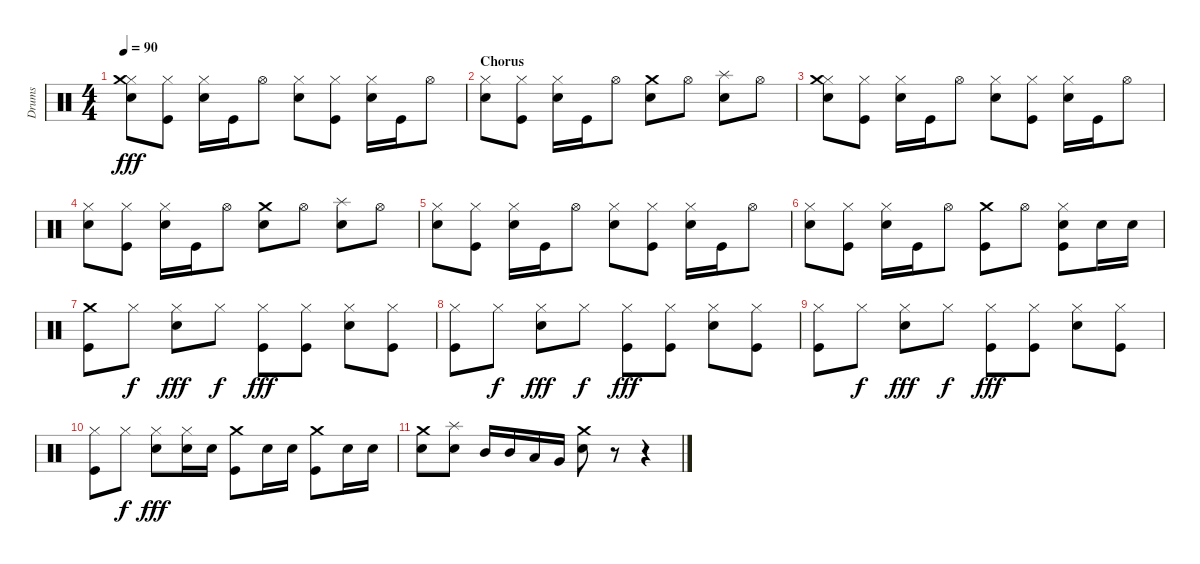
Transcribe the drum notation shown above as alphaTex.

\track ("Drums" "Drums") {instrument percussion}
\staff {score}
\articulation defaults
\ts (4 4)
\tempo 90
\clef neutral
\ks c
("Hi-Hat (closed)" "Snare (hit) 2" "Crash medium (hit)").8{dy fff} ("Hi-Hat (closed)" "Kick (hit)").8 ("Hi-Hat (closed)" "Snare (hit) 2").16 "Kick (hit)".16 "Hi-Hat (open)".8 ("Hi-Hat (closed)" "Snare (hit) 2").8 ("Hi-Hat (closed)" "Kick (hit)").8 ("Hi-Hat (closed)" "Snare (hit) 2").16 "Kick (hit)".16 "Hi-Hat (open)".8 |
\section ("" "Chorus")
("Hi-Hat (closed)" "Snare (hit) 2").8 ("Hi-Hat (closed)" "Kick (hit)").8 ("Hi-Hat (closed)" "Snare (hit) 2").16 "Kick (hit)".16 "Hi-Hat (open)".8 ("Snare (hit) 2" "Crash medium (hit)").8 "Hi-Hat (open)".8 ("Splash (hit)" "Snare (hit) 2").8 "Hi-Hat (open)".8 |
("Hi-Hat (closed)" "Crash medium (hit)" "Snare (hit) 2").8 ("Hi-Hat (closed)" "Kick (hit)").8 ("Hi-Hat (closed)" "Snare (hit) 2").16 "Kick (hit)".16 "Hi-Hat (open)".8 ("Hi-Hat (closed)" "Snare (hit) 2").8 ("Hi-Hat (closed)" "Kick (hit)").8 ("Hi-Hat (closed)" "Snare (hit) 2").16 "Kick (hit)".16 "Hi-Hat (open)".8 |
("Hi-Hat (closed)" "Snare (hit) 2").8 ("Hi-Hat (closed)" "Kick (hit)").8 ("Hi-Hat (closed)" "Snare (hit) 2").16 "Kick (hit)".16 "Hi-Hat (open)".8 ("Snare (hit) 2" "Crash medium (hit)").8 "Hi-Hat (open)".8 ("Splash (hit)" "Snare (hit) 2").8 "Hi-Hat (open)".8 |
("Hi-Hat (closed)" "Snare (hit) 2").8 ("Hi-Hat (closed)" "Kick (hit)").8 ("Hi-Hat (closed)" "Snare (hit) 2").16 "Kick (hit)".16 "Hi-Hat (open)".8 ("Hi-Hat (closed)" "Snare (hit) 2").8 ("Hi-Hat (closed)" "Kick (hit)").8 ("Hi-Hat (closed)" "Snare (hit) 2").16 "Kick (hit)".16 "Hi-Hat (open)".8 |
("Hi-Hat (closed)" "Snare (hit) 2").8 ("Hi-Hat (closed)" "Kick (hit)").8 ("Hi-Hat (closed)" "Snare (hit) 2").16 "Kick (hit)".16 "Hi-Hat (open)".8 ("Crash medium (hit)" "Kick (hit)").8 "Hi-Hat (open)".8 ("Hi-Hat (closed)" "Snare (hit) 2" "Kick (hit)").8 "Snare (hit) 2".16 "Snare (hit) 2".16 |
("Crash medium (hit)" "Kick (hit)").8 "Hi-Hat (closed)".8{dy f} ("Hi-Hat (closed)" "Snare (hit) 2").8{dy fff} "Hi-Hat (closed)".8{dy f} ("Hi-Hat (closed)" "Kick (hit)").8{dy fff} ("Hi-Hat (closed)" "Kick (hit)").8 ("Hi-Hat (closed)" "Snare (hit) 2").8 ("Hi-Hat (closed)" "Kick (hit)").8 |
("Hi-Hat (closed)" "Kick (hit)").8 "Hi-Hat (closed)".8{dy f} ("Hi-Hat (closed)" "Snare (hit) 2").8{dy fff} "Hi-Hat (closed)".8{dy f} ("Hi-Hat (closed)" "Kick (hit)").8{dy fff} ("Hi-Hat (closed)" "Kick (hit)").8 ("Hi-Hat (closed)" "Snare (hit) 2").8 ("Hi-Hat (closed)" "Kick (hit)").8 |
("Hi-Hat (closed)" "Kick (hit)").8 "Hi-Hat (closed)".8{dy f} ("Hi-Hat (closed)" "Snare (hit) 2").8{dy fff} "Hi-Hat (closed)".8{dy f} ("Hi-Hat (closed)" "Kick (hit)").8{dy fff} ("Hi-Hat (closed)" "Kick (hit)").8 ("Hi-Hat (closed)" "Snare (hit) 2").8 ("Hi-Hat (closed)" "Kick (hit)").8 |
("Hi-Hat (closed)" "Kick (hit)").8 "Hi-Hat (closed)".8{dy f} ("Hi-Hat (closed)" "Snare (hit) 2").8{dy fff} ("Hi-Hat (closed)" "Snare (hit) 2").16 "Snare (hit) 2".16 ("Crash medium (hit)" "Kick (hit)").8 "Snare (hit) 2".16 "Snare (hit) 2".16 ("Crash medium (hit)" "Kick (hit)").8 "Snare (hit) 2".16 "Snare (hit) 2".16 |
("Snare (hit) 2" "Crash medium (hit)").8 ("Splash (hit)" "Snare (hit) 2").8 "Mid Tom (hit)".16 "Mid Tom (hit)".16 "Low Tom (hit)".16 "Very Low Tom (hit)".16 ("Snare (hit) 2" "Crash medium (hit)").8 r.8 r.4
